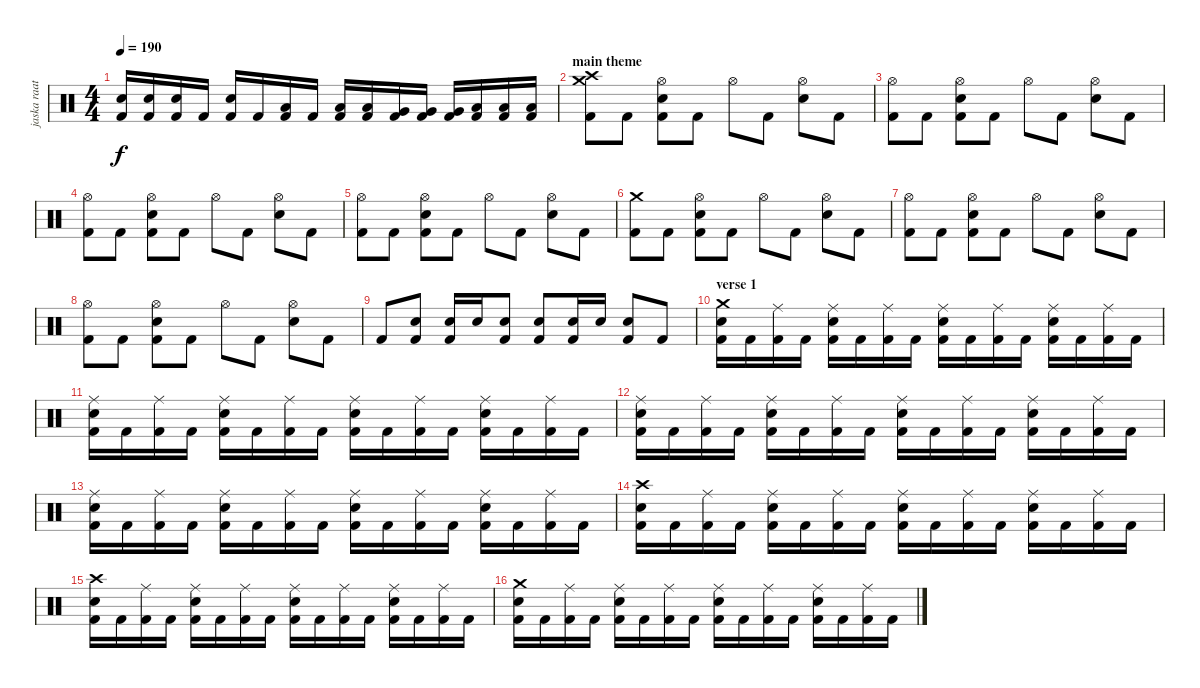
\track ("jaska raatikainen" "jaska raat") {instrument percussion}
\staff {score}
\articulation defaults
\ts (4 4)
\tempo 190
\clef neutral
\ks c
("Snare (hit) 2" "Kick (hit) 2").16{dy f} ("Snare (hit) 2" "Kick (hit) 2").16 ("Snare (hit) 2" "Kick (hit) 2").16 "Kick (hit) 2".16 ("Snare (hit) 2" "Kick (hit) 2").16 "Kick (hit) 2".16 ("Low Tom (hit)" "Kick (hit) 2").16 "Kick (hit) 2".16 ("Low Tom (hit)" "Kick (hit) 2").16 ("Low Tom (hit)" "Kick (hit) 2").16 ("Very Low Tom (hit)" "Kick (hit) 2").16 ("Very Low Tom (hit)" "Kick (hit) 2").16 ("Very Low Tom (hit)" "Kick (hit) 2").16 ("Low Floor Tom (hit)" "Kick (hit) 2").16 ("Low Floor Tom (hit)" "Kick (hit) 2").16 ("Low Floor Tom (hit)" "Kick (hit) 2").16 |
\section ("" "main theme")
("Crash medium (hit)" "Crash high (hit)" "Kick (hit) 2").8 "Kick (hit) 2".8 ("Hi-Hat (open)" "Snare (hit) 2" "Kick (hit) 2").8 "Kick (hit) 2".8 "Hi-Hat (open)".8 "Kick (hit) 2".8 ("Hi-Hat (open)" "Snare (hit) 2").8 "Kick (hit) 2".8 |
("Hi-Hat (open)" "Kick (hit) 2").8 "Kick (hit) 2".8 ("Hi-Hat (open)" "Snare (hit) 2" "Kick (hit) 2").8 "Kick (hit) 2".8 "Hi-Hat (open)".8 "Kick (hit) 2".8 ("Hi-Hat (open)" "Snare (hit) 2").8 "Kick (hit) 2".8 |
("Hi-Hat (open)" "Kick (hit) 2").8 "Kick (hit) 2".8 ("Hi-Hat (open)" "Snare (hit) 2" "Kick (hit) 2").8 "Kick (hit) 2".8 "Hi-Hat (open)".8 "Kick (hit) 2".8 ("Hi-Hat (open)" "Snare (hit) 2").8 "Kick (hit) 2".8 |
("Hi-Hat (open)" "Kick (hit) 2").8 "Kick (hit) 2".8 ("Hi-Hat (open)" "Snare (hit) 2" "Kick (hit) 2").8 "Kick (hit) 2".8 "Hi-Hat (open)".8 "Kick (hit) 2".8 ("Hi-Hat (open)" "Snare (hit) 2").8 "Kick (hit) 2".8 |
("Crash medium (hit)" "Kick (hit) 2").8 "Kick (hit) 2".8 ("Hi-Hat (open)" "Snare (hit) 2" "Kick (hit) 2").8 "Kick (hit) 2".8 "Hi-Hat (open)".8 "Kick (hit) 2".8 ("Hi-Hat (open)" "Snare (hit) 2").8 "Kick (hit) 2".8 |
("Hi-Hat (open)" "Kick (hit) 2").8 "Kick (hit) 2".8 ("Hi-Hat (open)" "Snare (hit) 2" "Kick (hit) 2").8 "Kick (hit) 2".8 "Hi-Hat (open)".8 "Kick (hit) 2".8 ("Hi-Hat (open)" "Snare (hit) 2").8 "Kick (hit) 2".8 |
("Hi-Hat (open)" "Kick (hit) 2").8 "Kick (hit) 2".8 ("Hi-Hat (open)" "Snare (hit) 2" "Kick (hit) 2").8 "Kick (hit) 2".8 "Hi-Hat (open)".8 "Kick (hit) 2".8 ("Hi-Hat (open)" "Snare (hit) 2").8 "Kick (hit) 2".8 |
"Kick (hit) 2".8 ("Snare (hit) 2" "Kick (hit) 2").8 ("Snare (hit) 2" "Kick (hit) 2").16 "Snare (hit) 2".16 ("Snare (hit) 2" "Kick (hit) 2").8 ("Snare (hit) 2" "Kick (hit) 2").8 ("Snare (hit) 2" "Kick (hit) 2").16 "Snare (hit) 2".16 ("Snare (hit) 2" "Kick (hit) 2").8 "Kick (hit) 2".8 |
\section ("" "verse 1")
("Crash medium (hit)" "Snare (hit) 2" "Kick (hit) 2").16 "Kick (hit) 2".16 ("Ride (middle)" "Kick (hit) 2").16 "Kick (hit) 2".16 ("Ride (middle)" "Snare (hit) 2" "Kick (hit) 2").16 "Kick (hit) 2".16 ("Ride (middle)" "Kick (hit) 2").16 "Kick (hit) 2".16 ("Ride (middle)" "Snare (hit) 2" "Kick (hit) 2").16 "Kick (hit) 2".16 ("Ride (middle)" "Kick (hit) 2").16 "Kick (hit) 2".16 ("Ride (middle)" "Snare (hit) 2" "Kick (hit) 2").16 "Kick (hit) 2".16 ("Ride (middle)" "Kick (hit) 2").16 "Kick (hit) 2".16 |
("Ride (middle)" "Snare (hit) 2" "Kick (hit) 2").16 "Kick (hit) 2".16 ("Ride (middle)" "Kick (hit) 2").16 "Kick (hit) 2".16 ("Ride (middle)" "Snare (hit) 2" "Kick (hit) 2").16 "Kick (hit) 2".16 ("Ride (middle)" "Kick (hit) 2").16 "Kick (hit) 2".16 ("Ride (middle)" "Snare (hit) 2" "Kick (hit) 2").16 "Kick (hit) 2".16 ("Ride (middle)" "Kick (hit) 2").16 "Kick (hit) 2".16 ("Ride (middle)" "Snare (hit) 2" "Kick (hit) 2").16 "Kick (hit) 2".16 ("Ride (middle)" "Kick (hit) 2").16 "Kick (hit) 2".16 |
("Ride (middle)" "Snare (hit) 2" "Kick (hit) 2").16 "Kick (hit) 2".16 ("Ride (middle)" "Kick (hit) 2").16 "Kick (hit) 2".16 ("Ride (middle)" "Snare (hit) 2" "Kick (hit) 2").16 "Kick (hit) 2".16 ("Ride (middle)" "Kick (hit) 2").16 "Kick (hit) 2".16 ("Ride (middle)" "Snare (hit) 2" "Kick (hit) 2").16 "Kick (hit) 2".16 ("Ride (middle)" "Kick (hit) 2").16 "Kick (hit) 2".16 ("Ride (middle)" "Snare (hit) 2" "Kick (hit) 2").16 "Kick (hit) 2".16 ("Ride (middle)" "Kick (hit) 2").16 "Kick (hit) 2".16 |
("Ride (middle)" "Snare (hit) 2" "Kick (hit) 2").16 "Kick (hit) 2".16 ("Ride (middle)" "Kick (hit) 2").16 "Kick (hit) 2".16 ("Ride (middle)" "Snare (hit) 2" "Kick (hit) 2").16 "Kick (hit) 2".16 ("Ride (middle)" "Kick (hit) 2").16 "Kick (hit) 2".16 ("Ride (middle)" "Snare (hit) 2" "Kick (hit) 2").16 "Kick (hit) 2".16 ("Ride (middle)" "Kick (hit) 2").16 "Kick (hit) 2".16 ("Ride (middle)" "Snare (hit) 2" "Kick (hit) 2").16 "Kick (hit) 2".16 ("Ride (middle)" "Kick (hit) 2").16 "Kick (hit) 2".16 |
("Crash high (hit)" "Snare (hit) 2" "Kick (hit) 2").16 "Kick (hit) 2".16 ("Ride (middle)" "Kick (hit) 2").16 "Kick (hit) 2".16 ("Ride (middle)" "Snare (hit) 2" "Kick (hit) 2").16 "Kick (hit) 2".16 ("Ride (middle)" "Kick (hit) 2").16 "Kick (hit) 2".16 ("Ride (middle)" "Snare (hit) 2" "Kick (hit) 2").16 "Kick (hit) 2".16 ("Ride (middle)" "Kick (hit) 2").16 "Kick (hit) 2".16 ("Ride (middle)" "Snare (hit) 2" "Kick (hit) 2").16 "Kick (hit) 2".16 ("Ride (middle)" "Kick (hit) 2").16 "Kick (hit) 2".16 |
("Crash high (hit)" "Snare (hit) 2" "Kick (hit) 2").16 "Kick (hit) 2".16 ("Ride (middle)" "Kick (hit) 2").16 "Kick (hit) 2".16 ("Ride (middle)" "Snare (hit) 2" "Kick (hit) 2").16 "Kick (hit) 2".16 ("Ride (middle)" "Kick (hit) 2").16 "Kick (hit) 2".16 ("Ride (middle)" "Snare (hit) 2" "Kick (hit) 2").16 "Kick (hit) 2".16 ("Ride (middle)" "Kick (hit) 2").16 "Kick (hit) 2".16 ("Ride (middle)" "Snare (hit) 2" "Kick (hit) 2").16 "Kick (hit) 2".16 ("Ride (middle)" "Kick (hit) 2").16 "Kick (hit) 2".16 |
("Crash medium (hit)" "Snare (hit) 2" "Kick (hit) 2").16 "Kick (hit) 2".16 ("Ride (middle)" "Kick (hit) 2").16 "Kick (hit) 2".16 ("Ride (middle)" "Snare (hit) 2" "Kick (hit) 2").16 "Kick (hit) 2".16 ("Ride (middle)" "Kick (hit) 2").16 "Kick (hit) 2".16 ("Ride (middle)" "Snare (hit) 2" "Kick (hit) 2").16 "Kick (hit) 2".16 ("Ride (middle)" "Kick (hit) 2").16 "Kick (hit) 2".16 ("Ride (middle)" "Snare (hit) 2" "Kick (hit) 2").16 "Kick (hit) 2".16 ("Ride (middle)" "Kick (hit) 2").16 "Kick (hit) 2".16
